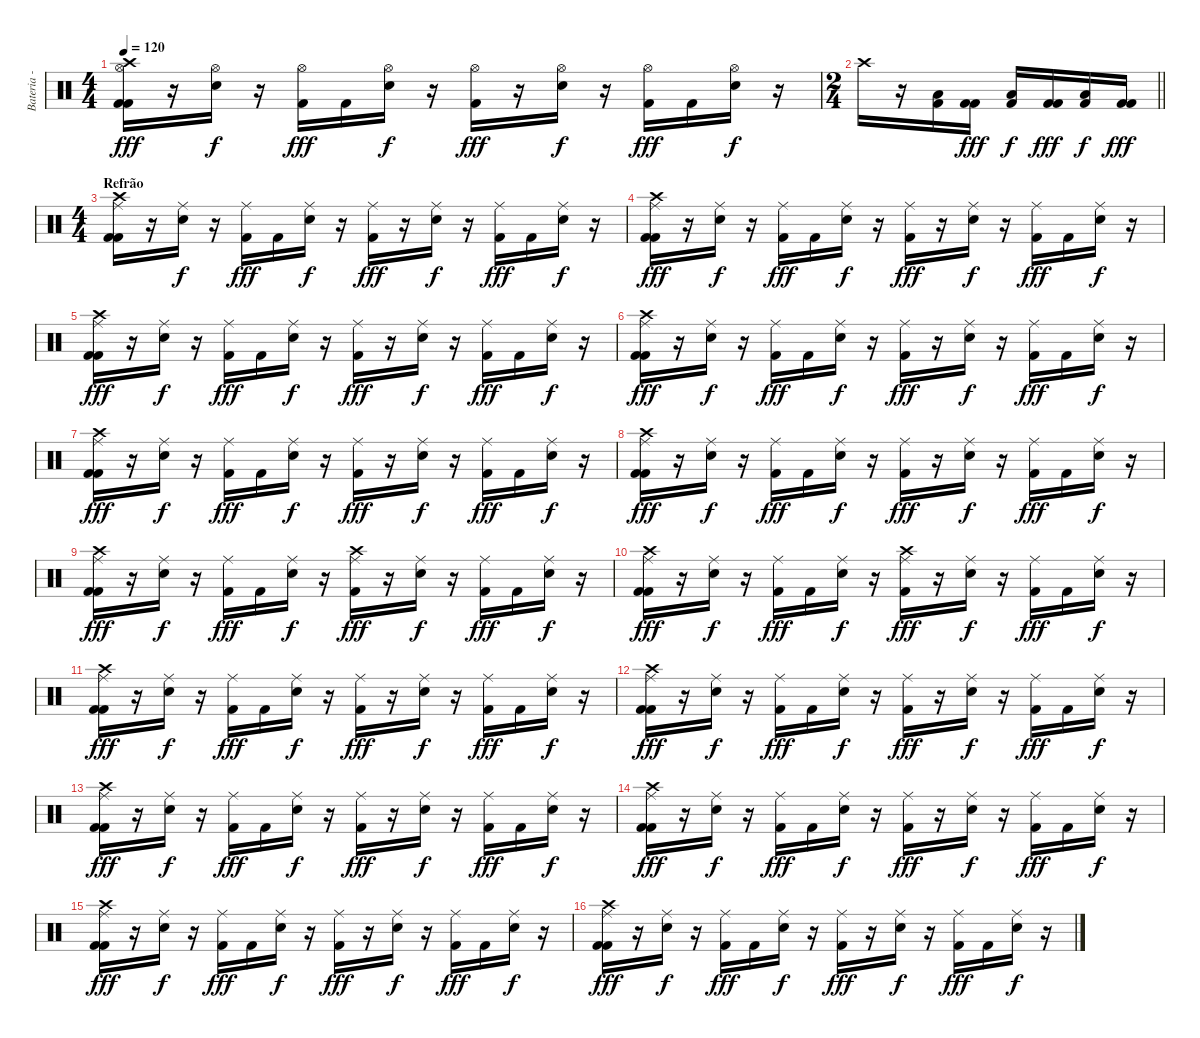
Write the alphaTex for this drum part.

\track ("Bateria - Larzon" "Bateria - ") {instrument percussion}
\staff {score}
\articulation defaults
\ts (4 4)
\tempo 120
\clef neutral
\ks c
("Kick (hit) 2" "Kick (hit) 2" "Crash high (hit)" "Hi-Hat (open)").16{dy fff} r.16 ("Snare (hit) 2" "Hi-Hat (open)").16{dy f} r.16 ("Kick (hit) 2" "Hi-Hat (open)").16{dy fff} "Kick (hit) 2".16 ("Snare (hit) 2" "Hi-Hat (open)").16{dy f} r.16 ("Kick (hit) 2" "Hi-Hat (open)").16{dy fff} r.16 ("Snare (hit) 2" "Hi-Hat (open)").16{dy f} r.16 ("Kick (hit) 2" "Hi-Hat (open)").16{dy fff} "Kick (hit) 2".16 ("Snare (hit) 2" "Hi-Hat (open)").16{dy f} r.16 |
\ts (2 4)
\barLineRight lightlight "Crash high (hit)".16
r.16 ("Kick (hit) 2" "Low Floor Tom (hit)").16 ("Kick (hit) 2" "Kick (hit) 2").16{dy fff} ("Kick (hit) 2" "Low Floor Tom (hit)").16{dy f} ("Kick (hit) 2" "Kick (hit) 2").16{dy fff} ("Kick (hit) 2" "Low Floor Tom (hit)").16{dy f} ("Kick (hit) 2" "Kick (hit) 2").16{dy fff} |
\ts (4 4)
\section ("" "Refrão")
("Kick (hit) 2" "Kick (hit) 2" "Crash high (hit)" "Ride (middle)").16 r.16 ("Snare (hit) 2" "Ride (middle)").16{dy f} r.16 ("Kick (hit) 2" "Ride (middle)").16{dy fff} "Kick (hit) 2".16 ("Snare (hit) 2" "Ride (middle)").16{dy f} r.16 ("Kick (hit) 2" "Ride (middle)").16{dy fff} r.16 ("Snare (hit) 2" "Ride (middle)").16{dy f} r.16 ("Kick (hit) 2" "Ride (middle)").16{dy fff} "Kick (hit) 2".16 ("Snare (hit) 2" "Ride (middle)").16{dy f} r.16 |
("Kick (hit) 2" "Kick (hit) 2" "Crash high (hit)" "Ride (middle)").16{dy fff} r.16 ("Snare (hit) 2" "Ride (middle)").16{dy f} r.16 ("Kick (hit) 2" "Ride (middle)").16{dy fff} "Kick (hit) 2".16 ("Snare (hit) 2" "Ride (middle)").16{dy f} r.16 ("Kick (hit) 2" "Ride (middle)").16{dy fff} r.16 ("Snare (hit) 2" "Ride (middle)").16{dy f} r.16 ("Kick (hit) 2" "Ride (middle)").16{dy fff} "Kick (hit) 2".16 ("Snare (hit) 2" "Ride (middle)").16{dy f} r.16 |
("Kick (hit) 2" "Kick (hit) 2" "Crash high (hit)" "Ride (middle)").16{dy fff} r.16 ("Snare (hit) 2" "Ride (middle)").16{dy f} r.16 ("Kick (hit) 2" "Ride (middle)").16{dy fff} "Kick (hit) 2".16 ("Snare (hit) 2" "Ride (middle)").16{dy f} r.16 ("Kick (hit) 2" "Ride (middle)").16{dy fff} r.16 ("Snare (hit) 2" "Ride (middle)").16{dy f} r.16 ("Kick (hit) 2" "Ride (middle)").16{dy fff} "Kick (hit) 2".16 ("Snare (hit) 2" "Ride (middle)").16{dy f} r.16 |
("Kick (hit) 2" "Kick (hit) 2" "Crash high (hit)" "Ride (middle)").16{dy fff} r.16 ("Snare (hit) 2" "Ride (middle)").16{dy f} r.16 ("Kick (hit) 2" "Ride (middle)").16{dy fff} "Kick (hit) 2".16 ("Snare (hit) 2" "Ride (middle)").16{dy f} r.16 ("Kick (hit) 2" "Ride (middle)").16{dy fff} r.16 ("Snare (hit) 2" "Ride (middle)").16{dy f} r.16 ("Kick (hit) 2" "Ride (middle)").16{dy fff} "Kick (hit) 2".16 ("Snare (hit) 2" "Ride (middle)").16{dy f} r.16 |
("Kick (hit) 2" "Kick (hit) 2" "Crash high (hit)" "Ride (middle)").16{dy fff} r.16 ("Snare (hit) 2" "Ride (middle)").16{dy f} r.16 ("Kick (hit) 2" "Ride (middle)").16{dy fff} "Kick (hit) 2".16 ("Snare (hit) 2" "Ride (middle)").16{dy f} r.16 ("Kick (hit) 2" "Ride (middle)").16{dy fff} r.16 ("Snare (hit) 2" "Ride (middle)").16{dy f} r.16 ("Kick (hit) 2" "Ride (middle)").16{dy fff} "Kick (hit) 2".16 ("Snare (hit) 2" "Ride (middle)").16{dy f} r.16 |
("Kick (hit) 2" "Kick (hit) 2" "Crash high (hit)" "Ride (middle)").16{dy fff} r.16 ("Snare (hit) 2" "Ride (middle)").16{dy f} r.16 ("Kick (hit) 2" "Ride (middle)").16{dy fff} "Kick (hit) 2".16 ("Snare (hit) 2" "Ride (middle)").16{dy f} r.16 ("Kick (hit) 2" "Ride (middle)").16{dy fff} r.16 ("Snare (hit) 2" "Ride (middle)").16{dy f} r.16 ("Kick (hit) 2" "Ride (middle)").16{dy fff} "Kick (hit) 2".16 ("Snare (hit) 2" "Ride (middle)").16{dy f} r.16 |
("Kick (hit) 2" "Kick (hit) 2" "Crash high (hit)" "Ride (middle)").16{dy fff} r.16 ("Snare (hit) 2" "Ride (middle)").16{dy f} r.16 ("Kick (hit) 2" "Ride (middle)").16{dy fff} "Kick (hit) 2".16 ("Snare (hit) 2" "Ride (middle)").16{dy f} r.16 ("Kick (hit) 2" "Crash high (hit)" "Ride (middle)").16{dy fff} r.16 ("Snare (hit) 2" "Ride (middle)").16{dy f} r.16 ("Kick (hit) 2" "Ride (middle)").16{dy fff} "Kick (hit) 2".16 ("Snare (hit) 2" "Ride (middle)").16{dy f} r.16 |
("Kick (hit) 2" "Kick (hit) 2" "Crash high (hit)" "Ride (middle)").16{dy fff} r.16 ("Snare (hit) 2" "Ride (middle)").16{dy f} r.16 ("Kick (hit) 2" "Ride (middle)").16{dy fff} "Kick (hit) 2".16 ("Snare (hit) 2" "Ride (middle)").16{dy f} r.16 ("Kick (hit) 2" "Crash high (hit)" "Ride (middle)").16{dy fff} r.16 ("Snare (hit) 2" "Ride (middle)").16{dy f} r.16 ("Kick (hit) 2" "Ride (middle)").16{dy fff} "Kick (hit) 2".16 ("Snare (hit) 2" "Ride (middle)").16{dy f} r.16 |
("Kick (hit) 2" "Kick (hit) 2" "Crash high (hit)" "Ride (middle)").16{dy fff} r.16 ("Snare (hit) 2" "Ride (middle)").16{dy f} r.16 ("Kick (hit) 2" "Ride (middle)").16{dy fff} "Kick (hit) 2".16 ("Snare (hit) 2" "Ride (middle)").16{dy f} r.16 ("Kick (hit) 2" "Ride (middle)").16{dy fff} r.16 ("Snare (hit) 2" "Ride (middle)").16{dy f} r.16 ("Kick (hit) 2" "Ride (middle)").16{dy fff} "Kick (hit) 2".16 ("Snare (hit) 2" "Ride (middle)").16{dy f} r.16 |
("Kick (hit) 2" "Kick (hit) 2" "Crash high (hit)" "Ride (middle)").16{dy fff} r.16 ("Snare (hit) 2" "Ride (middle)").16{dy f} r.16 ("Kick (hit) 2" "Ride (middle)").16{dy fff} "Kick (hit) 2".16 ("Snare (hit) 2" "Ride (middle)").16{dy f} r.16 ("Kick (hit) 2" "Ride (middle)").16{dy fff} r.16 ("Snare (hit) 2" "Ride (middle)").16{dy f} r.16 ("Kick (hit) 2" "Ride (middle)").16{dy fff} "Kick (hit) 2".16 ("Snare (hit) 2" "Ride (middle)").16{dy f} r.16 |
("Kick (hit) 2" "Kick (hit) 2" "Crash high (hit)" "Ride (middle)").16{dy fff} r.16 ("Snare (hit) 2" "Ride (middle)").16{dy f} r.16 ("Kick (hit) 2" "Ride (middle)").16{dy fff} "Kick (hit) 2".16 ("Snare (hit) 2" "Ride (middle)").16{dy f} r.16 ("Kick (hit) 2" "Ride (middle)").16{dy fff} r.16 ("Snare (hit) 2" "Ride (middle)").16{dy f} r.16 ("Kick (hit) 2" "Ride (middle)").16{dy fff} "Kick (hit) 2".16 ("Snare (hit) 2" "Ride (middle)").16{dy f} r.16 |
("Kick (hit) 2" "Kick (hit) 2" "Crash high (hit)" "Ride (middle)").16{dy fff} r.16 ("Snare (hit) 2" "Ride (middle)").16{dy f} r.16 ("Kick (hit) 2" "Ride (middle)").16{dy fff} "Kick (hit) 2".16 ("Snare (hit) 2" "Ride (middle)").16{dy f} r.16 ("Kick (hit) 2" "Ride (middle)").16{dy fff} r.16 ("Snare (hit) 2" "Ride (middle)").16{dy f} r.16 ("Kick (hit) 2" "Ride (middle)").16{dy fff} "Kick (hit) 2".16 ("Snare (hit) 2" "Ride (middle)").16{dy f} r.16 |
("Kick (hit) 2" "Kick (hit) 2" "Crash high (hit)" "Ride (middle)").16{dy fff} r.16 ("Snare (hit) 2" "Ride (middle)").16{dy f} r.16 ("Kick (hit) 2" "Ride (middle)").16{dy fff} "Kick (hit) 2".16 ("Snare (hit) 2" "Ride (middle)").16{dy f} r.16 ("Kick (hit) 2" "Ride (middle)").16{dy fff} r.16 ("Snare (hit) 2" "Ride (middle)").16{dy f} r.16 ("Kick (hit) 2" "Ride (middle)").16{dy fff} "Kick (hit) 2".16 ("Snare (hit) 2" "Ride (middle)").16{dy f} r.16 |
("Kick (hit) 2" "Kick (hit) 2" "Crash high (hit)" "Ride (middle)").16{dy fff} r.16 ("Snare (hit) 2" "Ride (middle)").16{dy f} r.16 ("Kick (hit) 2" "Ride (middle)").16{dy fff} "Kick (hit) 2".16 ("Snare (hit) 2" "Ride (middle)").16{dy f} r.16 ("Kick (hit) 2" "Ride (middle)").16{dy fff} r.16 ("Snare (hit) 2" "Ride (middle)").16{dy f} r.16 ("Kick (hit) 2" "Ride (middle)").16{dy fff} "Kick (hit) 2".16 ("Snare (hit) 2" "Ride (middle)").16{dy f} r.16
